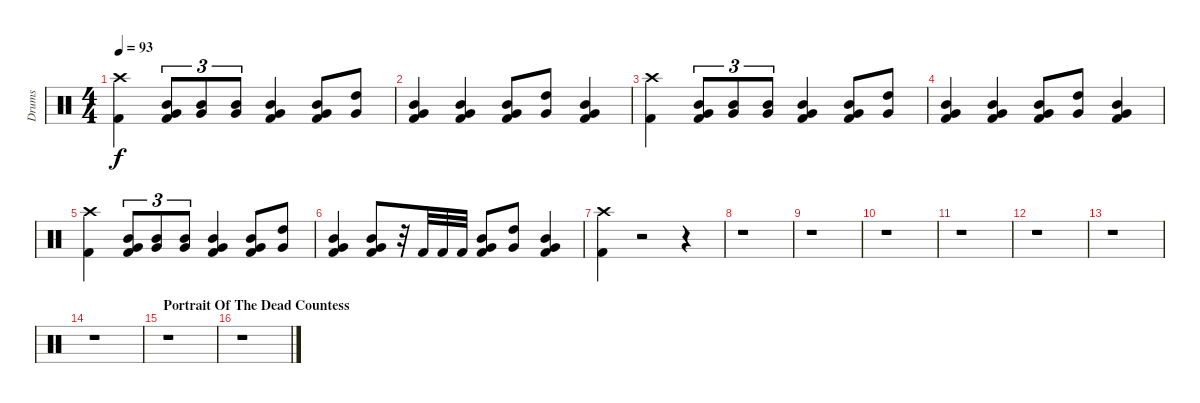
\track ("Drums" "Drums") {instrument percussion}
\staff {score}
\articulation defaults
\ts (4 4)
\tempo 93
\clef neutral
\ks c
("Crash high (hit)" "Kick (hit) 2").4{dy f} ("Mid Tom (hit)" "Very Low Tom (hit)" "Kick (hit) 2").8{tu (3 2)} ("Mid Tom (hit)" "Very Low Tom (hit)").8{tu (3 2)} ("Mid Tom (hit)" "Very Low Tom (hit)").8{tu (3 2)} ("Mid Tom (hit)" "Very Low Tom (hit)" "Kick (hit) 2").4 ("Mid Tom (hit)" "Very Low Tom (hit)" "Kick (hit) 2").8 ("High Tom (hit)" "Very Low Tom (hit)").8 |
("Mid Tom (hit)" "Very Low Tom (hit)" "Kick (hit) 2").4 ("Mid Tom (hit)" "Very Low Tom (hit)" "Kick (hit) 2").4 ("Mid Tom (hit)" "Very Low Tom (hit)" "Kick (hit) 2").8 ("High Tom (hit)" "Very Low Tom (hit)").8 ("Mid Tom (hit)" "Very Low Tom (hit)" "Kick (hit) 2").4 |
("Crash high (hit)" "Kick (hit) 2").4 ("Mid Tom (hit)" "Very Low Tom (hit)" "Kick (hit) 2").8{tu (3 2)} ("Mid Tom (hit)" "Very Low Tom (hit)").8{tu (3 2)} ("Mid Tom (hit)" "Very Low Tom (hit)").8{tu (3 2)} ("Mid Tom (hit)" "Very Low Tom (hit)" "Kick (hit) 2").4 ("Mid Tom (hit)" "Very Low Tom (hit)" "Kick (hit) 2").8 ("High Tom (hit)" "Very Low Tom (hit)").8 |
("Mid Tom (hit)" "Very Low Tom (hit)" "Kick (hit) 2").4 ("Mid Tom (hit)" "Very Low Tom (hit)" "Kick (hit) 2").4 ("Mid Tom (hit)" "Very Low Tom (hit)" "Kick (hit) 2").8 ("High Tom (hit)" "Very Low Tom (hit)").8 ("Mid Tom (hit)" "Very Low Tom (hit)" "Kick (hit) 2").4 |
("Crash high (hit)" "Kick (hit) 2").4 ("Mid Tom (hit)" "Very Low Tom (hit)" "Kick (hit) 2").8{tu (3 2)} ("Mid Tom (hit)" "Very Low Tom (hit)").8{tu (3 2)} ("Mid Tom (hit)" "Very Low Tom (hit)").8{tu (3 2)} ("Mid Tom (hit)" "Very Low Tom (hit)" "Kick (hit) 2").4 ("Mid Tom (hit)" "Very Low Tom (hit)" "Kick (hit) 2").8 ("High Tom (hit)" "Very Low Tom (hit)").8 |
("Mid Tom (hit)" "Very Low Tom (hit)" "Kick (hit) 2").4 ("Mid Tom (hit)" "Very Low Tom (hit)" "Kick (hit) 2").8 r.32 "Kick (hit) 2".32 "Kick (hit) 2".32 "Kick (hit) 2".32 ("Mid Tom (hit)" "Very Low Tom (hit)" "Kick (hit) 2").8 ("High Tom (hit)" "Very Low Tom (hit)").8 ("Mid Tom (hit)" "Very Low Tom (hit)" "Kick (hit) 2").4 |
("Crash high (hit)" "Kick (hit) 2").4 r.2 r.4 |
r.1 |
r.1 |
r.1 |
r.1 |
r.1 |
r.1 |
r.1 |
\section ("" "Portrait Of The Dead Countess")
r.1 |
r.1
